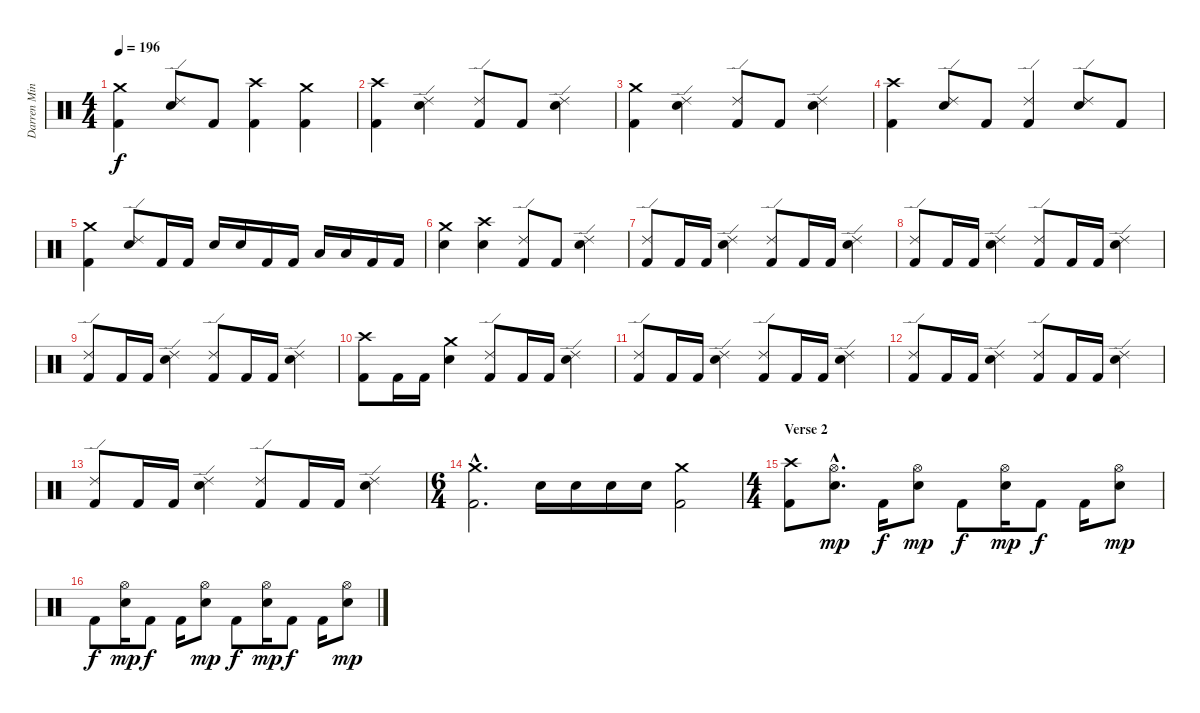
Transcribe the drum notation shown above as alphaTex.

\track ("Darren Minter" "Darren Min") {instrument percussion}
\staff {score}
\articulation defaults
\ts (4 4)
\tempo 196
\clef neutral
\ks c
("Kick (hit) 2" "Crash medium (hit)").4{dy f} ("Ride (edge) 2" "Snare (hit) 2").8 "Kick (hit) 2".8 ("Kick (hit) 2" "Crash high (hit)").4 ("Kick (hit) 2" "Crash medium (hit)").4 |
("Kick (hit) 2" "Crash high (hit)").4 ("Ride (edge) 2" "Snare (hit) 2").4 ("Kick (hit) 2" "Ride (edge) 2").8 "Kick (hit) 2".8 ("Ride (edge) 2" "Snare (hit) 2").4 |
("Kick (hit) 2" "Crash medium (hit)").4 ("Ride (edge) 2" "Snare (hit) 2").4 ("Kick (hit) 2" "Ride (edge) 2").8 "Kick (hit) 2".8 ("Ride (edge) 2" "Snare (hit) 2").4 |
("Kick (hit) 2" "Crash high (hit)").4 ("Ride (edge) 2" "Snare (hit) 2").8 "Kick (hit) 2".8 ("Kick (hit) 2" "Ride (edge) 2").4 ("Ride (edge) 2" "Snare (hit) 2").8 "Kick (hit) 2".8 |
("Kick (hit) 2" "Crash medium (hit)").4 ("Ride (edge) 2" "Snare (hit) 2").8 "Kick (hit) 2".16 "Kick (hit) 2".16 "Snare (hit) 2".16 "Snare (hit) 2".16 "Kick (hit) 2".16 "Kick (hit) 2".16 "Low Tom (hit)".16 "Low Tom (hit)".16 "Kick (hit) 2".16 "Kick (hit) 2".16 |
("Crash medium (hit)" "Snare (hit) 2").4 ("Crash high (hit)" "Snare (hit) 2").4 ("Kick (hit) 2" "Ride (edge) 2").8 "Kick (hit) 2".8 ("Ride (edge) 2" "Snare (hit) 2").4 |
("Kick (hit) 2" "Ride (edge) 2").8 "Kick (hit) 2".16 "Kick (hit) 2".16 ("Ride (edge) 2" "Snare (hit) 2").4 ("Kick (hit) 2" "Ride (edge) 2").8 "Kick (hit) 2".16 "Kick (hit) 2".16 ("Ride (edge) 2" "Snare (hit) 2").4 |
("Kick (hit) 2" "Ride (edge) 2").8 "Kick (hit) 2".16 "Kick (hit) 2".16 ("Ride (edge) 2" "Snare (hit) 2").4 ("Kick (hit) 2" "Ride (edge) 2").8 "Kick (hit) 2".16 "Kick (hit) 2".16 ("Ride (edge) 2" "Snare (hit) 2").4 |
("Kick (hit) 2" "Ride (edge) 2").8 "Kick (hit) 2".16 "Kick (hit) 2".16 ("Ride (edge) 2" "Snare (hit) 2").4 ("Kick (hit) 2" "Ride (edge) 2").8 "Kick (hit) 2".16 "Kick (hit) 2".16 ("Ride (edge) 2" "Snare (hit) 2").4 |
("Kick (hit) 2" "Crash high (hit)").8 "Kick (hit) 2".16 "Kick (hit) 2".16 ("Crash medium (hit)" "Snare (hit) 2").4 ("Kick (hit) 2" "Ride (edge) 2").8 "Kick (hit) 2".16 "Kick (hit) 2".16 ("Ride (edge) 2" "Snare (hit) 2").4 |
("Kick (hit) 2" "Ride (edge) 2").8 "Kick (hit) 2".16 "Kick (hit) 2".16 ("Ride (edge) 2" "Snare (hit) 2").4 ("Kick (hit) 2" "Ride (edge) 2").8 "Kick (hit) 2".16 "Kick (hit) 2".16 ("Ride (edge) 2" "Snare (hit) 2").4 |
("Kick (hit) 2" "Ride (edge) 2").8 "Kick (hit) 2".16 "Kick (hit) 2".16 ("Ride (edge) 2" "Snare (hit) 2").4 ("Kick (hit) 2" "Ride (edge) 2").8 "Kick (hit) 2".16 "Kick (hit) 2".16 ("Ride (edge) 2" "Snare (hit) 2").4 |
("Kick (hit) 2" "Ride (edge) 2").8 "Kick (hit) 2".16 "Kick (hit) 2".16 ("Ride (edge) 2" "Snare (hit) 2").4 ("Kick (hit) 2" "Ride (edge) 2").8 "Kick (hit) 2".16 "Kick (hit) 2".16 ("Ride (edge) 2" "Snare (hit) 2").4 |
\ts (6 4)
("Kick (hit) 2"{hac} "Crash medium (hit)"{hac}).2{d} "Snare (hit) 2".16 "Snare (hit) 2".16 "Snare (hit) 2".16 "Snare (hit) 2".16 ("Kick (hit) 2" "Crash medium (hit)").2 |
\ts (4 4)
\section ("" "Verse 2")
("Kick (hit) 2" "Crash high (hit)").8 ("Hi-Hat (open)"{hac} "Snare (hit) 2"{hac}).8{d dy mp} "Kick (hit) 2".16{dy f} ("Hi-Hat (open)" "Snare (hit) 2").8{dy mp} "Kick (hit) 2".8{dy f} ("Hi-Hat (open)" "Snare (hit) 2").16{dy mp} "Kick (hit) 2".8{dy f} "Kick (hit) 2".16 ("Hi-Hat (open)" "Snare (hit) 2").8{dy mp} |
"Kick (hit) 2".8{dy f} ("Hi-Hat (open)" "Snare (hit) 2").16{dy mp} "Kick (hit) 2".8{dy f} "Kick (hit) 2".16 ("Hi-Hat (open)" "Snare (hit) 2").8{dy mp} "Kick (hit) 2".8{dy f} ("Hi-Hat (open)" "Snare (hit) 2").16{dy mp} "Kick (hit) 2".8{dy f} "Kick (hit) 2".16 ("Hi-Hat (open)" "Snare (hit) 2").8{dy mp}
